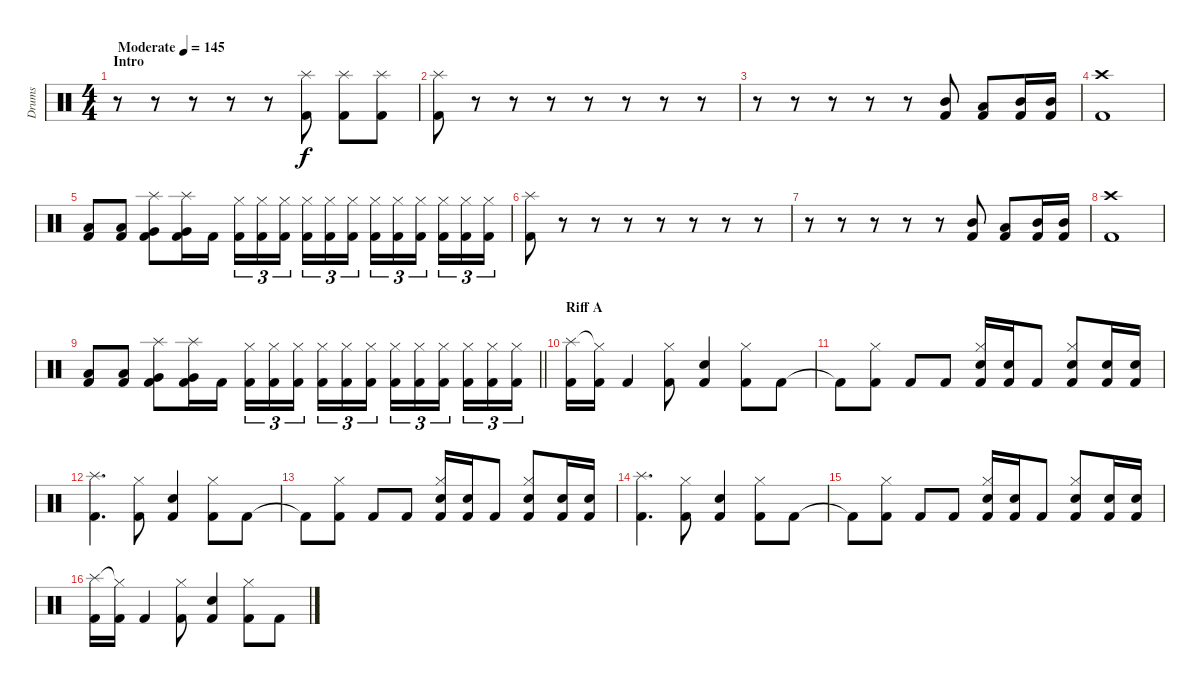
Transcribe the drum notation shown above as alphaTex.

\track ("Drums" "Drums") {instrument percussion}
\staff {score}
\articulation defaults
\ts (4 4)
\section ("" "Intro")
\tempo (145 "Moderate")
\clef neutral
\ks c
r.8{dy f} r.8 r.8 r.8 r.8 ("Splash (hit)" "Kick (hit) 2").8 ("Splash (hit)" "Kick (hit) 2").8 ("Splash (hit)" "Kick (hit) 2").8 |
("Splash (hit)" "Kick (hit) 2").8 r.8 r.8 r.8 r.8 r.8 r.8 r.8 |
r.8 r.8 r.8 r.8 r.8 ("Mid Tom (hit)" "Kick (hit) 2").8 ("Low Tom (hit)" "Kick (hit) 2").8 ("Mid Tom (hit)" "Kick (hit) 2").16 ("Mid Tom (hit)" "Kick (hit) 2").16 |
("Crash high (hit)" "Kick (hit) 2").1 |
("Low Tom (hit)" "Kick (hit) 2").8 ("Low Tom (hit)" "Kick (hit) 2").8 ("Splash (hit)" "Very Low Tom (hit)" "Kick (hit) 2").8 ("Splash (hit)" "Very Low Tom (hit)" "Kick (hit) 2").16 "Kick (hit) 2".16 ("Hi-Hat (closed)" "Kick (hit) 2").16{tu (3 2)} ("Hi-Hat (closed)" "Kick (hit) 2").16{tu (3 2)} ("Hi-Hat (closed)" "Kick (hit) 2").16{tu (3 2) beam splitsecondary} ("Hi-Hat (closed)" "Kick (hit) 2").16{tu (3 2)} ("Hi-Hat (closed)" "Kick (hit) 2").16{tu (3 2)} ("Hi-Hat (closed)" "Kick (hit) 2").16{tu (3 2)} ("Hi-Hat (closed)" "Kick (hit) 2").16{tu (3 2)} ("Hi-Hat (closed)" "Kick (hit) 2").16{tu (3 2)} ("Hi-Hat (closed)" "Kick (hit) 2").16{tu (3 2) beam splitsecondary} ("Hi-Hat (closed)" "Kick (hit) 2").16{tu (3 2)} ("Hi-Hat (closed)" "Kick (hit) 2").16{tu (3 2)} ("Hi-Hat (closed)" "Kick (hit) 2").16{tu (3 2)} |
("Splash (hit)" "Kick (hit) 2").8 r.8 r.8 r.8 r.8 r.8 r.8 r.8 |
r.8 r.8 r.8 r.8 r.8 ("Mid Tom (hit)" "Kick (hit) 2").8 ("Low Tom (hit)" "Kick (hit) 2").8 ("Mid Tom (hit)" "Kick (hit) 2").16 ("Mid Tom (hit)" "Kick (hit) 2").16 |
("Crash high (hit)" "Kick (hit) 2").1 |
\barLineRight lightlight
("Low Tom (hit)" "Kick (hit) 2").8 ("Low Tom (hit)" "Kick (hit) 2").8 ("Splash (hit)" "Very Low Tom (hit)" "Kick (hit) 2").8 ("Splash (hit)" "Very Low Tom (hit)" "Kick (hit) 2").16 "Kick (hit) 2".16 ("Hi-Hat (closed)" "Kick (hit) 2").16{tu (3 2)} ("Hi-Hat (closed)" "Kick (hit) 2").16{tu (3 2)} ("Hi-Hat (closed)" "Kick (hit) 2").16{tu (3 2) beam splitsecondary} ("Hi-Hat (closed)" "Kick (hit) 2").16{tu (3 2)} ("Hi-Hat (closed)" "Kick (hit) 2").16{tu (3 2)} ("Hi-Hat (closed)" "Kick (hit) 2").16{tu (3 2)} ("Hi-Hat (closed)" "Kick (hit) 2").16{tu (3 2)} ("Hi-Hat (closed)" "Kick (hit) 2").16{tu (3 2)} ("Hi-Hat (closed)" "Kick (hit) 2").16{tu (3 2) beam splitsecondary} ("Hi-Hat (closed)" "Kick (hit) 2").16{tu (3 2)} ("Hi-Hat (closed)" "Kick (hit) 2").16{tu (3 2)} ("Hi-Hat (closed)" "Kick (hit) 2").16{tu (3 2)} |
\section ("" "Riff A")
("Splash (hit)" "Kick (hit) 2").16 ("Hi-Hat (closed)"{t} "Kick (hit) 2").16 "Kick (hit) 2".4 ("Hi-Hat (closed)" "Kick (hit) 2").8 ("Electric Snare (hit)" "Kick (hit) 2").4 ("Hi-Hat (closed)" "Kick (hit) 2").8 "Kick (hit) 2".8 |
"Kick (hit) 2"{t}.8 ("Hi-Hat (closed)" "Kick (hit) 2").8 "Kick (hit) 2".8 "Kick (hit) 2".8 ("Hi-Hat (closed)" "Electric Snare (hit)" "Kick (hit) 2").16 ("Electric Snare (hit)" "Kick (hit) 2").16 "Kick (hit) 2".8 ("Hi-Hat (closed)" "Electric Snare (hit)" "Kick (hit) 2").8 ("Electric Snare (hit)" "Kick (hit) 2").16 ("Electric Snare (hit)" "Kick (hit) 2").16 |
("Splash (hit)" "Kick (hit) 2").4{d} ("Hi-Hat (closed)" "Kick (hit) 2").8 ("Electric Snare (hit)" "Kick (hit) 2").4 ("Hi-Hat (closed)" "Kick (hit) 2").8 "Kick (hit) 2".8 |
"Kick (hit) 2"{t}.8 ("Hi-Hat (closed)" "Kick (hit) 2").8 "Kick (hit) 2".8 "Kick (hit) 2".8 ("Hi-Hat (closed)" "Electric Snare (hit)" "Kick (hit) 2").16 ("Electric Snare (hit)" "Kick (hit) 2").16 "Kick (hit) 2".8 ("Hi-Hat (closed)" "Electric Snare (hit)" "Kick (hit) 2").8 ("Electric Snare (hit)" "Kick (hit) 2").16 ("Electric Snare (hit)" "Kick (hit) 2").16 |
("Splash (hit)" "Kick (hit) 2").4{d} ("Hi-Hat (closed)" "Kick (hit) 2").8 ("Electric Snare (hit)" "Kick (hit) 2").4 ("Hi-Hat (closed)" "Kick (hit) 2").8 "Kick (hit) 2".8 |
"Kick (hit) 2"{t}.8 ("Hi-Hat (closed)" "Kick (hit) 2").8 "Kick (hit) 2".8 "Kick (hit) 2".8 ("Hi-Hat (closed)" "Electric Snare (hit)" "Kick (hit) 2").16 ("Electric Snare (hit)" "Kick (hit) 2").16 "Kick (hit) 2".8 ("Hi-Hat (closed)" "Electric Snare (hit)" "Kick (hit) 2").8 ("Electric Snare (hit)" "Kick (hit) 2").16 ("Electric Snare (hit)" "Kick (hit) 2").16 |
("Splash (hit)" "Kick (hit) 2").16 ("Hi-Hat (closed)"{t} "Kick (hit) 2").16 "Kick (hit) 2".4 ("Hi-Hat (closed)" "Kick (hit) 2").8 ("Electric Snare (hit)" "Kick (hit) 2").4 ("Hi-Hat (closed)" "Kick (hit) 2").8 "Kick (hit) 2".8
